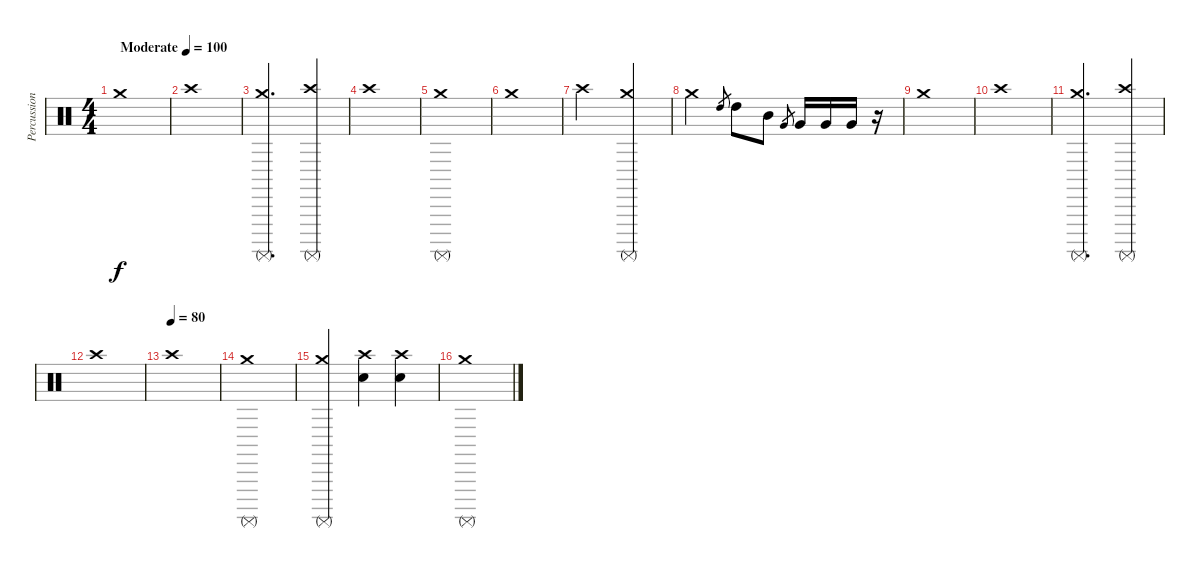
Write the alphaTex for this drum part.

\track ("Percussion" "Percussion") {instrument percussion}
\staff {score}
\articulation defaults
\ts (4 4)
\tempo (100 "Moderate")
\clef neutral
\ks c "Crash medium (hit)".1{dy f}
|
"Crash high (hit)".1 |
("Surdo (mute)" "Crash medium (hit)").2{d} ("Surdo (mute)" "Crash high (hit)").4 |
"Crash high (hit)".1 |
("Surdo (mute)" "Crash medium (hit)").1 |
"Crash medium (hit)".1 |
"Crash high (hit)".2 ("Surdo (mute)" "Crash medium (hit)").2 |
"Crash medium (hit)".2 "High Tom (hit)".8{gr} "High Tom (hit)".8 "Mid Tom (hit)".8 "Very Low Tom (hit)".8{gr} "Very Low Tom (hit)".16 "Very Low Tom (hit)".16 "Very Low Tom (hit)".16 r.16 |
"Crash medium (hit)".1 |
"Crash high (hit)".1 |
("Surdo (mute)" "Crash medium (hit)").2{d} ("Surdo (mute)" "Crash high (hit)").4 |
"Crash high (hit)".1 |
\tempo (80)
"Crash high (hit)".1 |
("Surdo (mute)" "Crash medium (hit)").1 |
("Surdo (mute)" "Crash medium (hit)").2 ("Snare (hit) 2" "Crash high (hit)").4 ("Snare (hit) 2" "Crash high (hit)").4 |
("Surdo (mute)" "Crash medium (hit)").1
